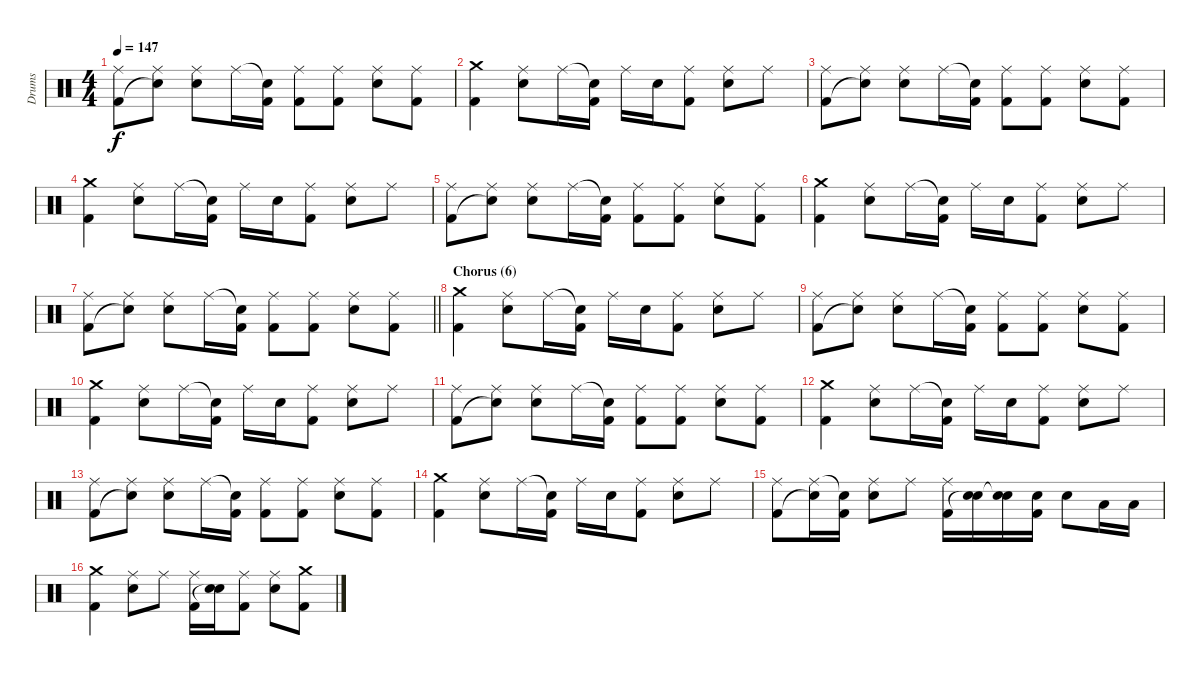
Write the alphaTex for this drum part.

\track ("Drums" "Drums") {instrument percussion}
\staff {score}
\articulation defaults
\ts (4 4)
\tempo 147
\clef neutral
\ks aminor
("Ride (middle)" "Kick (hit) 2").8{dy f} ("Ride (middle)" "Snare (hit)"{t}).8 ("Ride (middle)" "Electric Snare (hit)").8 "Ride (middle)".16 ("Snare (hit)"{t} "Kick (hit) 2").16 ("Ride (middle)" "Kick (hit) 2").8 ("Ride (middle)" "Kick (hit) 2").8 ("Ride (middle)" "Electric Snare (hit)").8 ("Ride (middle)" "Kick (hit) 2").8 |
("Crash medium (hit)" "Kick (hit) 2").4 ("Ride (middle)" "Electric Snare (hit)").8 "Ride (middle)".16 ("Snare (hit)"{t} "Kick (hit) 2").16 "Ride (middle)".16 "Electric Snare (hit)".16 ("Ride (middle)" "Kick (hit) 2").8 ("Ride (middle)" "Electric Snare (hit)").8 "Ride (middle)".8 |
("Ride (middle)" "Kick (hit) 2").8 ("Ride (middle)" "Snare (hit)"{t}).8 ("Ride (middle)" "Electric Snare (hit)").8 "Ride (middle)".16 ("Snare (hit)"{t} "Kick (hit) 2").16 ("Ride (middle)" "Kick (hit) 2").8 ("Ride (middle)" "Kick (hit) 2").8 ("Ride (middle)" "Electric Snare (hit)").8 ("Ride (middle)" "Kick (hit) 2").8 |
("Crash medium (hit)" "Kick (hit) 2").4 ("Ride (middle)" "Electric Snare (hit)").8 "Ride (middle)".16 ("Snare (hit)"{t} "Kick (hit) 2").16 "Ride (middle)".16 "Electric Snare (hit)".16 ("Ride (middle)" "Kick (hit) 2").8 ("Ride (middle)" "Electric Snare (hit)").8 "Ride (middle)".8 |
("Ride (middle)" "Kick (hit) 2").8 ("Ride (middle)" "Snare (hit)"{t}).8 ("Ride (middle)" "Electric Snare (hit)").8 "Ride (middle)".16 ("Snare (hit)"{t} "Kick (hit) 2").16 ("Ride (middle)" "Kick (hit) 2").8 ("Ride (middle)" "Kick (hit) 2").8 ("Ride (middle)" "Electric Snare (hit)").8 ("Ride (middle)" "Kick (hit) 2").8 |
("Crash medium (hit)" "Kick (hit) 2").4 ("Ride (middle)" "Electric Snare (hit)").8 "Ride (middle)".16 ("Snare (hit)"{t} "Kick (hit) 2").16 "Ride (middle)".16 "Electric Snare (hit)".16 ("Ride (middle)" "Kick (hit) 2").8 ("Ride (middle)" "Electric Snare (hit)").8 "Ride (middle)".8 |
\barLineRight lightlight
("Ride (middle)" "Kick (hit) 2").8 ("Ride (middle)" "Snare (hit)"{t}).8 ("Ride (middle)" "Electric Snare (hit)").8 "Ride (middle)".16 ("Snare (hit)"{t} "Kick (hit) 2").16 ("Ride (middle)" "Kick (hit) 2").8 ("Ride (middle)" "Kick (hit) 2").8 ("Ride (middle)" "Electric Snare (hit)").8 ("Ride (middle)" "Kick (hit) 2").8 |
\section ("" "Chorus (6)")
("Crash medium (hit)" "Kick (hit) 2").4 ("Ride (middle)" "Electric Snare (hit)").8 "Ride (middle)".16 ("Snare (hit)"{t} "Kick (hit) 2").16 "Ride (middle)".16 "Electric Snare (hit)".16 ("Ride (middle)" "Kick (hit) 2").8 ("Ride (middle)" "Electric Snare (hit)").8 "Ride (middle)".8 |
("Ride (middle)" "Kick (hit) 2").8 ("Ride (middle)" "Snare (hit)"{t}).8 ("Ride (middle)" "Electric Snare (hit)").8 "Ride (middle)".16 ("Snare (hit)"{t} "Kick (hit) 2").16 ("Ride (middle)" "Kick (hit) 2").8 ("Ride (middle)" "Kick (hit) 2").8 ("Ride (middle)" "Electric Snare (hit)").8 ("Ride (middle)" "Kick (hit) 2").8 |
("Crash medium (hit)" "Kick (hit) 2").4 ("Ride (middle)" "Electric Snare (hit)").8 "Ride (middle)".16 ("Snare (hit)"{t} "Kick (hit) 2").16 "Ride (middle)".16 "Electric Snare (hit)".16 ("Ride (middle)" "Kick (hit) 2").8 ("Ride (middle)" "Electric Snare (hit)").8 "Ride (middle)".8 |
("Ride (middle)" "Kick (hit) 2").8 ("Ride (middle)" "Snare (hit)"{t}).8 ("Ride (middle)" "Electric Snare (hit)").8 "Ride (middle)".16 ("Snare (hit)"{t} "Kick (hit) 2").16 ("Ride (middle)" "Kick (hit) 2").8 ("Ride (middle)" "Kick (hit) 2").8 ("Ride (middle)" "Electric Snare (hit)").8 ("Ride (middle)" "Kick (hit) 2").8 |
("Crash medium (hit)" "Kick (hit) 2").4 ("Ride (middle)" "Electric Snare (hit)").8 "Ride (middle)".16 ("Snare (hit)"{t} "Kick (hit) 2").16 "Ride (middle)".16 "Electric Snare (hit)".16 ("Ride (middle)" "Kick (hit) 2").8 ("Ride (middle)" "Electric Snare (hit)").8 "Ride (middle)".8 |
("Ride (middle)" "Kick (hit) 2").8 ("Ride (middle)" "Snare (hit)"{t}).8 ("Ride (middle)" "Electric Snare (hit)").8 "Ride (middle)".16 ("Snare (hit)"{t} "Kick (hit) 2").16 ("Ride (middle)" "Kick (hit) 2").8 ("Ride (middle)" "Kick (hit) 2").8 ("Ride (middle)" "Electric Snare (hit)").8 ("Ride (middle)" "Kick (hit) 2").8 |
("Crash medium (hit)" "Kick (hit) 2").4 ("Ride (middle)" "Electric Snare (hit)").8 "Ride (middle)".16 ("Snare (hit)"{t} "Kick (hit) 2").16 "Ride (middle)".16 "Electric Snare (hit)".16 ("Ride (middle)" "Kick (hit) 2").8 ("Ride (middle)" "Electric Snare (hit)").8 "Ride (middle)".8 |
("Ride (middle)" "Kick (hit) 2").8 ("Ride (middle)" "Snare (hit)"{t}).16 ("Snare (hit)"{t} "Kick (hit) 2").16 ("Ride (middle)" "Electric Snare (hit)").8 "Ride (middle)".8 ("Ride (middle)" "Kick (hit) 2").16 ("Electric Snare (hit)" "Snare (hit)"{t}).16 ("Electric Snare (hit)" "Snare (hit)"{t}).16 ("Electric Snare (hit)" "Kick (hit) 2").16 "Electric Snare (hit)".8 "Low Tom (hit)".16 "Low Tom (hit)".16 |
("Crash medium (hit)" "Kick (hit) 2").4 ("Ride (middle)" "Electric Snare (hit)").8 "Ride (middle)".8 ("Ride (middle)" "Kick (hit) 2").16 ("Electric Snare (hit)" "Snare (hit)"{t}).16 ("Ride (middle)" "Kick (hit) 2").8 ("Ride (middle)" "Electric Snare (hit)").8 ("Crash medium (hit)" "Kick (hit) 2").8
